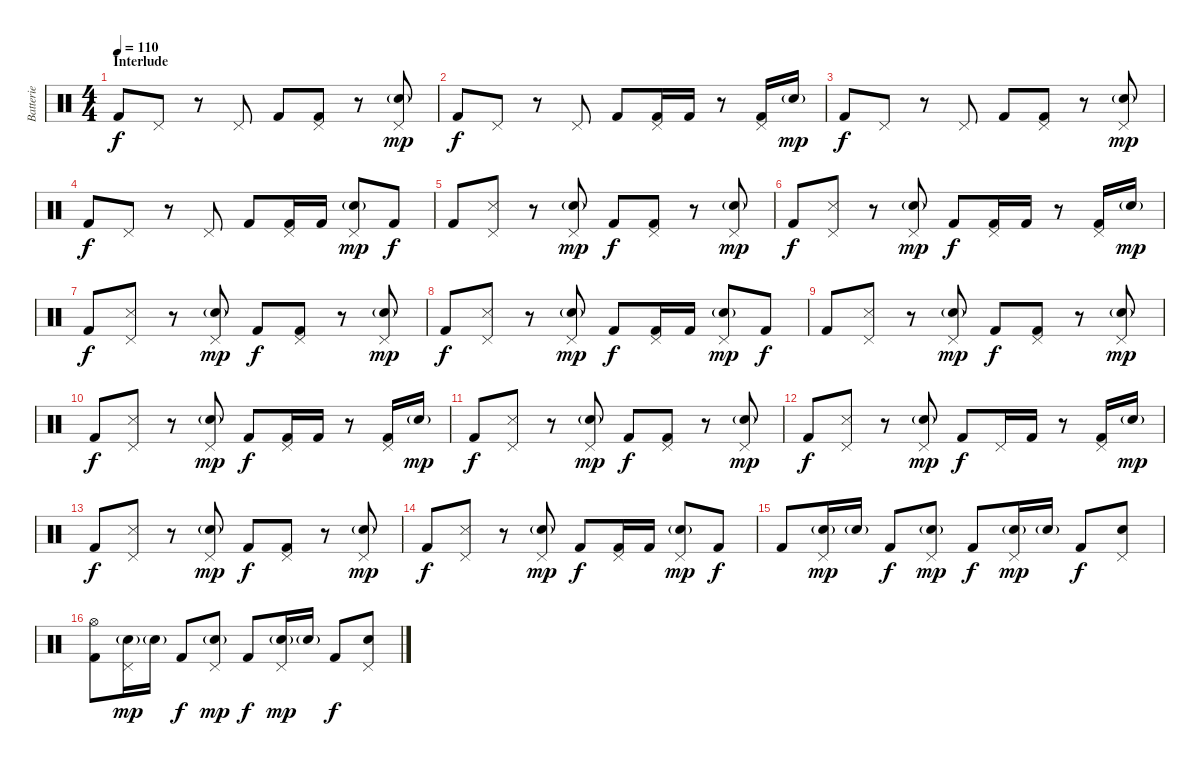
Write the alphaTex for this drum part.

\track ("Batterie" "Batterie") {instrument percussion}
\staff {score}
\articulation defaults
\ts (4 4)
\section ("" "Interlude")
\tempo 110
\clef neutral
\ks c "Kick (hit) 2".8{dy f} "Pedal Hi-Hat (hit)".8
r.8 "Pedal Hi-Hat (hit)".8 "Kick (hit) 2".8 ("Pedal Hi-Hat (hit)" "Kick (hit) 2").8 r.8 ("Pedal Hi-Hat (hit)" "Snare (hit) 2"{g}).8{dy mp} |
"Kick (hit) 2".8{dy f} "Pedal Hi-Hat (hit)".8 r.8 "Pedal Hi-Hat (hit)".8 "Kick (hit) 2".8 ("Pedal Hi-Hat (hit)" "Kick (hit) 2").16 "Kick (hit) 2".16 r.8 ("Pedal Hi-Hat (hit)" "Kick (hit) 2").16 "Snare (hit) 2"{g}.16{dy mp} |
"Kick (hit) 2".8{dy f} "Pedal Hi-Hat (hit)".8 r.8 "Pedal Hi-Hat (hit)".8 "Kick (hit) 2".8 ("Pedal Hi-Hat (hit)" "Kick (hit) 2").8 r.8 ("Pedal Hi-Hat (hit)" "Snare (hit) 2"{g}).8{dy mp} |
"Kick (hit) 2".8{dy f} "Pedal Hi-Hat (hit)".8 r.8 "Pedal Hi-Hat (hit)".8 "Kick (hit) 2".8 ("Pedal Hi-Hat (hit)" "Kick (hit) 2").16 "Kick (hit) 2".16 ("Pedal Hi-Hat (hit)" "Snare (hit) 2"{g}).8{dy mp} "Kick (hit) 2".8{dy f} |
"Kick (hit) 2".8 ("Pedal Hi-Hat (hit)" "Snare (side stick) 3").8 r.8 ("Pedal Hi-Hat (hit)" "Snare (hit) 2"{g}).8{dy mp} "Kick (hit) 2".8{dy f} ("Pedal Hi-Hat (hit)" "Kick (hit) 2").8 r.8 ("Pedal Hi-Hat (hit)" "Snare (hit) 2"{g}).8{dy mp} |
"Kick (hit) 2".8{dy f} ("Pedal Hi-Hat (hit)" "Snare (side stick) 3").8 r.8 ("Pedal Hi-Hat (hit)" "Snare (hit) 2"{g}).8{dy mp} "Kick (hit) 2".8{dy f} ("Pedal Hi-Hat (hit)" "Kick (hit) 2").16 "Kick (hit) 2".16 r.8 ("Pedal Hi-Hat (hit)" "Kick (hit) 2").16 "Snare (hit) 2"{g}.16{dy mp} |
"Kick (hit) 2".8{dy f} ("Pedal Hi-Hat (hit)" "Snare (side stick) 3").8 r.8 ("Pedal Hi-Hat (hit)" "Snare (hit) 2"{g}).8{dy mp} "Kick (hit) 2".8{dy f} ("Pedal Hi-Hat (hit)" "Kick (hit) 2").8 r.8 ("Pedal Hi-Hat (hit)" "Snare (hit) 2"{g}).8{dy mp} |
"Kick (hit) 2".8{dy f} ("Pedal Hi-Hat (hit)" "Snare (side stick) 3").8 r.8 ("Pedal Hi-Hat (hit)" "Snare (hit) 2"{g}).8{dy mp} "Kick (hit) 2".8{dy f} ("Pedal Hi-Hat (hit)" "Kick (hit) 2").16 "Kick (hit) 2".16 ("Pedal Hi-Hat (hit)" "Snare (hit) 2"{g}).8{dy mp} "Kick (hit) 2".8{dy f} |
"Kick (hit) 2".8 ("Pedal Hi-Hat (hit)" "Snare (side stick) 3").8 r.8 ("Pedal Hi-Hat (hit)" "Snare (hit) 2"{g}).8{dy mp} "Kick (hit) 2".8{dy f} ("Pedal Hi-Hat (hit)" "Kick (hit) 2").8 r.8 ("Pedal Hi-Hat (hit)" "Snare (hit) 2"{g}).8{dy mp} |
"Kick (hit) 2".8{dy f} ("Pedal Hi-Hat (hit)" "Snare (side stick) 3").8 r.8 ("Pedal Hi-Hat (hit)" "Snare (hit) 2"{g}).8{dy mp} "Kick (hit) 2".8{dy f} ("Pedal Hi-Hat (hit)" "Kick (hit) 2").16 "Kick (hit) 2".16 r.8 ("Pedal Hi-Hat (hit)" "Kick (hit) 2").16 "Snare (hit) 2"{g}.16{dy mp} |
"Kick (hit) 2".8{dy f} ("Pedal Hi-Hat (hit)" "Snare (side stick) 3").8 r.8 ("Pedal Hi-Hat (hit)" "Snare (hit) 2"{g}).8{dy mp} "Kick (hit) 2".8{dy f} ("Pedal Hi-Hat (hit)" "Kick (hit) 2").8 r.8 ("Pedal Hi-Hat (hit)" "Snare (hit) 2"{g}).8{dy mp} |
"Kick (hit) 2".8{dy f} ("Pedal Hi-Hat (hit)" "Snare (side stick) 3").8 r.8 ("Pedal Hi-Hat (hit)" "Snare (hit) 2"{g}).8{dy mp} "Kick (hit) 2".8{dy f} "Pedal Hi-Hat (hit)".16 "Kick (hit) 2".16 r.8 ("Pedal Hi-Hat (hit)" "Kick (hit) 2").16 "Snare (hit) 2"{g}.16{dy mp} |
"Kick (hit) 2".8{dy f} ("Pedal Hi-Hat (hit)" "Snare (side stick) 3").8 r.8 ("Pedal Hi-Hat (hit)" "Snare (hit) 2"{g}).8{dy mp} "Kick (hit) 2".8{dy f} ("Pedal Hi-Hat (hit)" "Kick (hit) 2").8 r.8 ("Pedal Hi-Hat (hit)" "Snare (hit) 2"{g}).8{dy mp} |
"Kick (hit) 2".8{dy f} ("Pedal Hi-Hat (hit)" "Snare (side stick) 3").8 r.8 ("Pedal Hi-Hat (hit)" "Snare (hit) 2"{g}).8{dy mp} "Kick (hit) 2".8{dy f} ("Pedal Hi-Hat (hit)" "Kick (hit) 2").16 "Kick (hit) 2".16 ("Pedal Hi-Hat (hit)" "Snare (hit) 2"{g}).8{dy mp} "Kick (hit) 2".8{dy f} |
"Kick (hit) 2".8 ("Pedal Hi-Hat (hit)" "Snare (hit) 2"{g}).16{dy mp} "Snare (hit) 2"{g}.16 "Kick (hit) 2".8{dy f} ("Pedal Hi-Hat (hit)" "Snare (hit) 2"{g}).8{dy mp} "Kick (hit) 2".8{dy f} ("Pedal Hi-Hat (hit)" "Snare (hit) 2"{g}).16{dy mp} "Snare (hit) 2"{g}.16 "Kick (hit) 2".8{dy f} ("Pedal Hi-Hat (hit)" "Snare (hit) 2").8 |
("Hi-Hat (open)" "Kick (hit) 2").8 ("Pedal Hi-Hat (hit)" "Snare (hit) 2"{g}).16{dy mp} "Snare (hit) 2"{g}.16 "Kick (hit) 2".8{dy f} ("Pedal Hi-Hat (hit)" "Snare (hit) 2"{g}).8{dy mp} "Kick (hit) 2".8{dy f} ("Pedal Hi-Hat (hit)" "Snare (hit) 2"{g}).16{dy mp} "Snare (hit) 2"{g}.16 "Kick (hit) 2".8{dy f} ("Pedal Hi-Hat (hit)" "Snare (hit) 2").8
